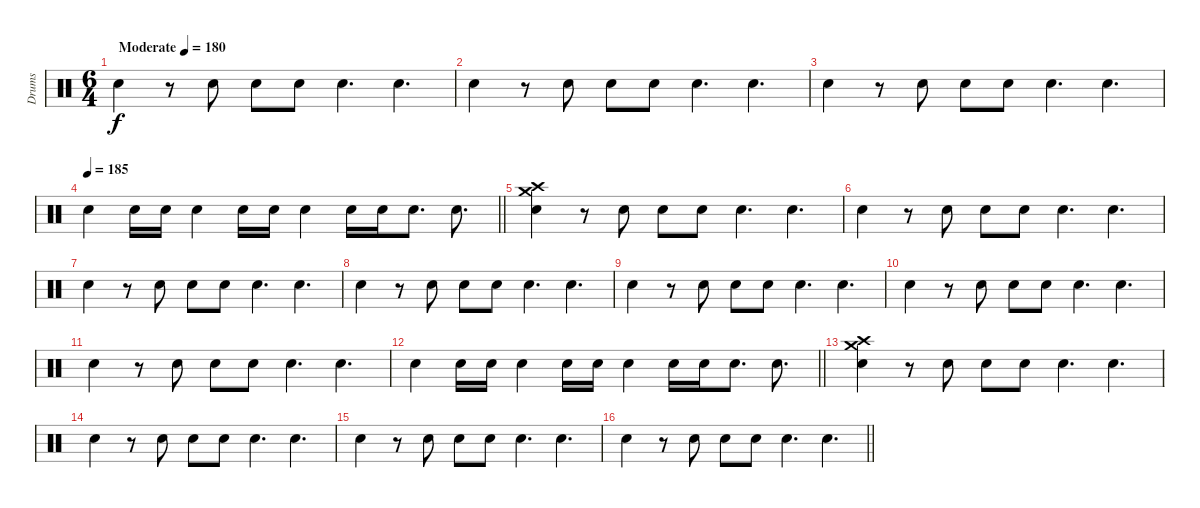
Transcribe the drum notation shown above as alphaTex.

\track ("Drums" "Drums") {instrument percussion}
\staff {score}
\articulation defaults
\ts (6 4)
\tempo (180 "Moderate")
\clef neutral
\ks c "Snare (hit) 2".4{dy f}
r.8 "Snare (hit) 2".8 "Snare (hit) 2".8 "Snare (hit) 2".8 "Snare (hit) 2".4{d} "Snare (hit) 2".4{d} |
"Snare (hit) 2".4 r.8 "Snare (hit) 2".8 "Snare (hit) 2".8 "Snare (hit) 2".8 "Snare (hit) 2".4{d} "Snare (hit) 2".4{d} |
"Snare (hit) 2".4 r.8 "Snare (hit) 2".8 "Snare (hit) 2".8 "Snare (hit) 2".8 "Snare (hit) 2".4{d} "Snare (hit) 2".4{d} |
\tempo 185
\barLineRight lightlight "Snare (hit) 2".4 "Snare (hit) 2".16 "Snare (hit) 2".16 "Snare (hit) 2".4 "Snare (hit) 2".16 "Snare (hit) 2".16 "Snare (hit) 2".4 "Snare (hit) 2".16 "Snare (hit) 2".16 "Snare (hit) 2".8{d} "Snare (hit) 2".8{d}
|
\section ("" "")
("Crash medium (hit)" "Crash high (hit)" "Snare (hit) 2").4 r.8 "Snare (hit) 2".8 "Snare (hit) 2".8 "Snare (hit) 2".8 "Snare (hit) 2".4{d} "Snare (hit) 2".4{d} |
"Snare (hit) 2".4 r.8 "Snare (hit) 2".8 "Snare (hit) 2".8 "Snare (hit) 2".8 "Snare (hit) 2".4{d} "Snare (hit) 2".4{d} |
"Snare (hit) 2".4 r.8 "Snare (hit) 2".8 "Snare (hit) 2".8 "Snare (hit) 2".8 "Snare (hit) 2".4{d} "Snare (hit) 2".4{d} |
"Snare (hit) 2".4 r.8 "Snare (hit) 2".8 "Snare (hit) 2".8 "Snare (hit) 2".8 "Snare (hit) 2".4{d} "Snare (hit) 2".4{d} |
"Snare (hit) 2".4 r.8 "Snare (hit) 2".8 "Snare (hit) 2".8 "Snare (hit) 2".8 "Snare (hit) 2".4{d} "Snare (hit) 2".4{d} |
"Snare (hit) 2".4 r.8 "Snare (hit) 2".8 "Snare (hit) 2".8 "Snare (hit) 2".8 "Snare (hit) 2".4{d} "Snare (hit) 2".4{d} |
"Snare (hit) 2".4 r.8 "Snare (hit) 2".8 "Snare (hit) 2".8 "Snare (hit) 2".8 "Snare (hit) 2".4{d} "Snare (hit) 2".4{d} |
\barLineRight lightlight "Snare (hit) 2".4 "Snare (hit) 2".16 "Snare (hit) 2".16 "Snare (hit) 2".4 "Snare (hit) 2".16 "Snare (hit) 2".16 "Snare (hit) 2".4 "Snare (hit) 2".16 "Snare (hit) 2".16 "Snare (hit) 2".8{d} "Snare (hit) 2".8{d}
|
\section ("" "")
("Crash medium (hit)" "Crash high (hit)" "Snare (hit) 2").4 r.8 "Snare (hit) 2".8 "Snare (hit) 2".8 "Snare (hit) 2".8 "Snare (hit) 2".4{d} "Snare (hit) 2".4{d} |
"Snare (hit) 2".4 r.8 "Snare (hit) 2".8 "Snare (hit) 2".8 "Snare (hit) 2".8 "Snare (hit) 2".4{d} "Snare (hit) 2".4{d} |
"Snare (hit) 2".4 r.8 "Snare (hit) 2".8 "Snare (hit) 2".8 "Snare (hit) 2".8 "Snare (hit) 2".4{d} "Snare (hit) 2".4{d} |
\barLineRight lightlight "Snare (hit) 2".4
r.8 "Snare (hit) 2".8 "Snare (hit) 2".8 "Snare (hit) 2".8 "Snare (hit) 2".4{d} "Snare (hit) 2".4{d}
